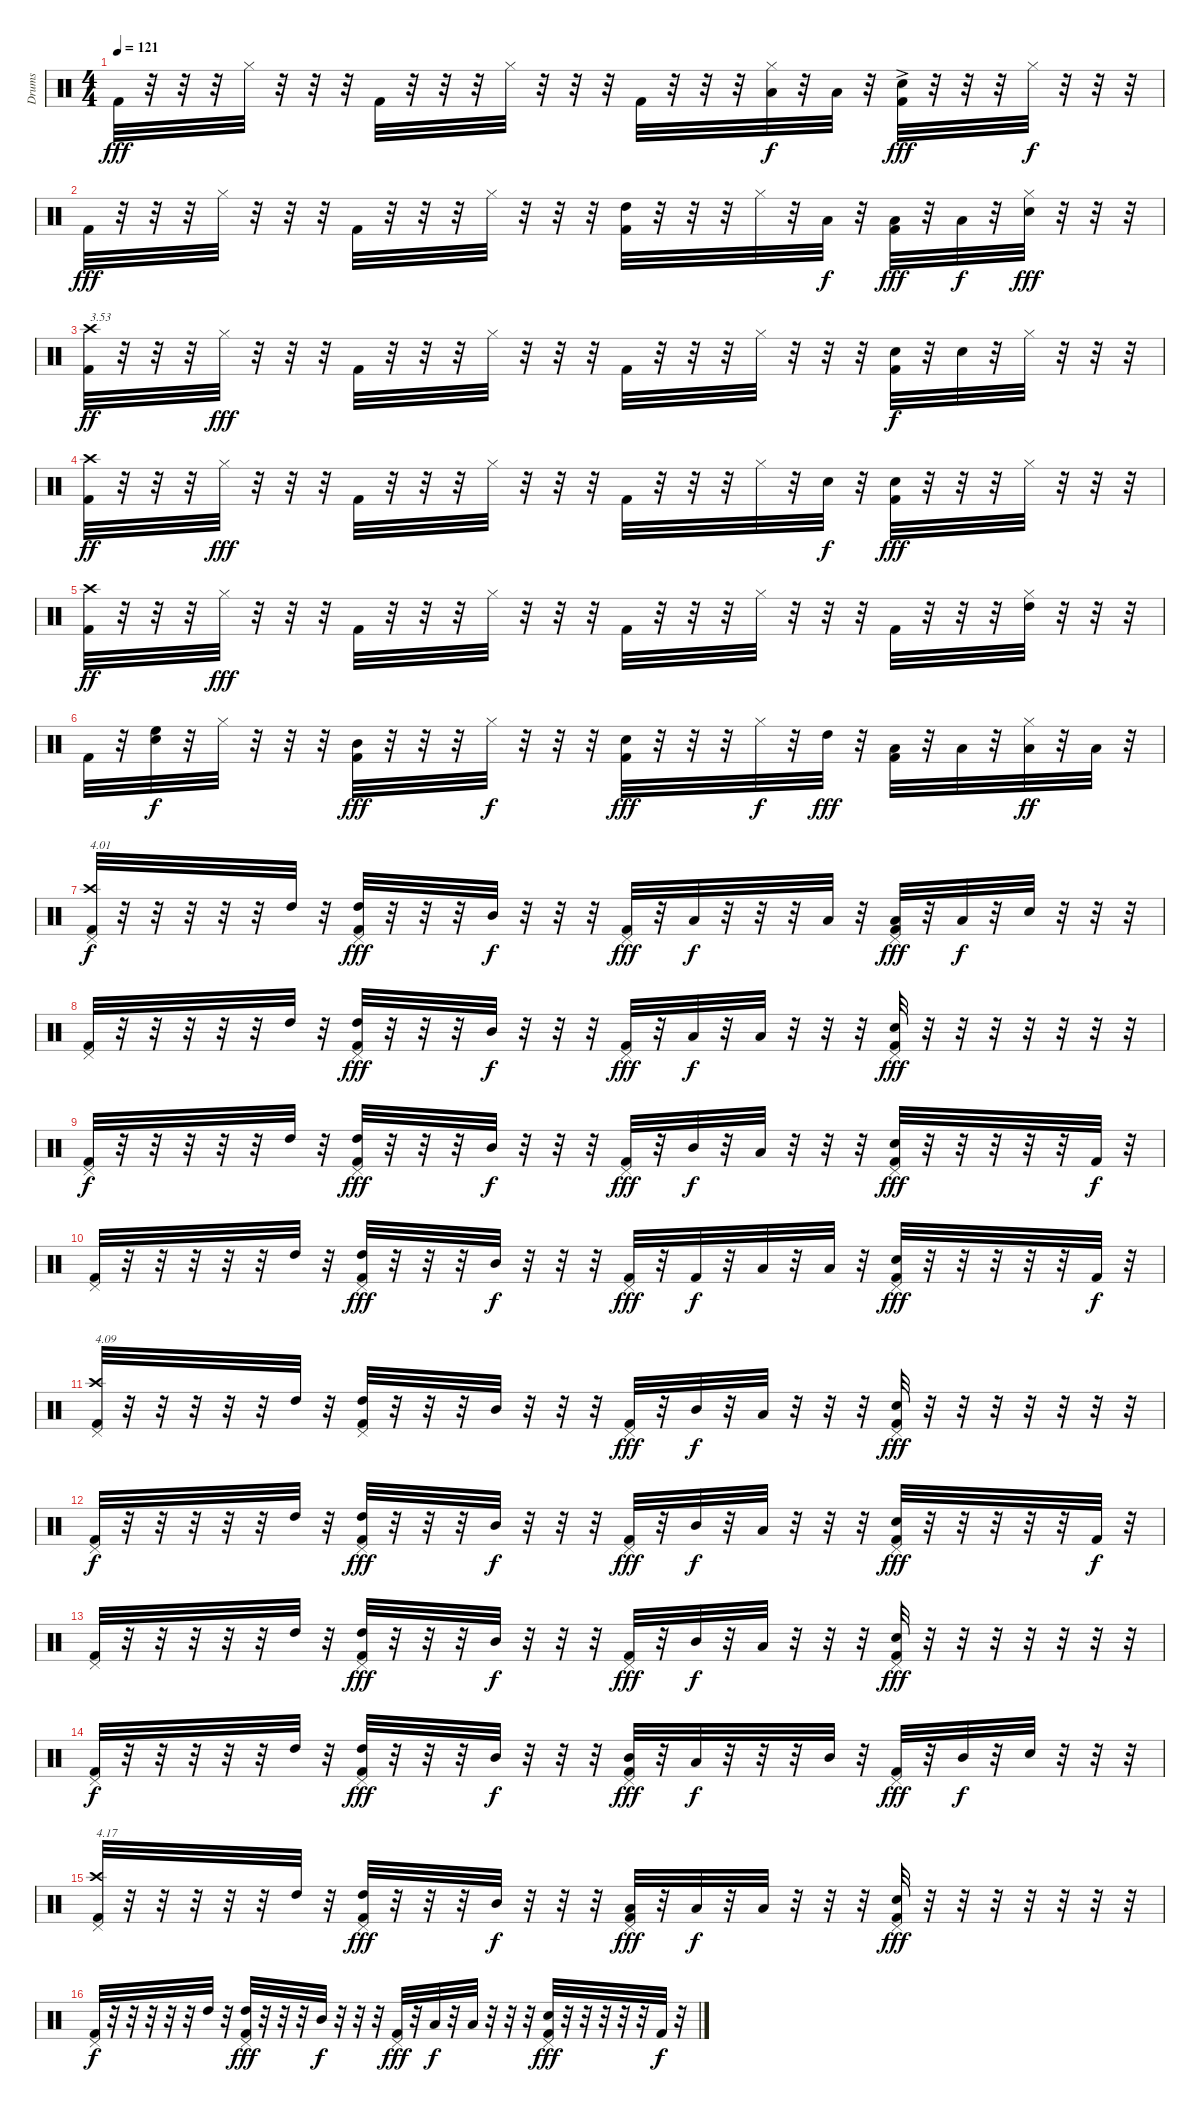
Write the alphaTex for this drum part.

\track ("Drums" "Drums") {instrument percussion}
\staff {score}
\articulation defaults
\ts (4 4)
\tempo 121
\clef neutral
\ks c "Kick (hit) 2".32{dy fff}
r.32 r.32 r.32 "Hi-Hat (closed)".32 r.32 r.32 r.32 "Kick (hit) 2".32 r.32 r.32 r.32 "Hi-Hat (closed)".32 r.32 r.32 r.32 "Kick (hit) 2".32 r.32 r.32 r.32 ("Hi-Hat (closed)" "Low Tom (hit)").32{dy f} r.32 "Low Tom (hit)".32 r.32 ("Kick (hit) 2" "Electric Snare (hit)"{ac}).32{dy fff} r.32 r.32 r.32 "Hi-Hat (closed)".32{dy f} r.32 r.32 r.32 |
"Kick (hit) 2".32{dy fff} r.32 r.32 r.32 "Hi-Hat (closed)".32 r.32 r.32 r.32 "Kick (hit) 2".32 r.32 r.32 r.32 "Hi-Hat (closed)".32 r.32 r.32 r.32 ("Kick (hit) 2" "High Tom (hit)").32 r.32 r.32 r.32 "Hi-Hat (closed)".32 r.32 "Low Tom (hit)".32{dy f} r.32 ("Kick (hit) 2" "Low Tom (hit)").32{dy fff} r.32 "Low Tom (hit)".32{dy f} r.32 ("Hi-Hat (closed)" "Electric Snare (hit)").32{dy fff} r.32 r.32 r.32 |
("Kick (hit) 2" "Crash high (hit)").32{txt "3.53" dy ff} r.32 r.32 r.32 "Hi-Hat (closed)".32{dy fff} r.32 r.32 r.32 "Kick (hit) 2".32 r.32 r.32 r.32 "Hi-Hat (closed)".32 r.32 r.32 r.32 "Kick (hit) 2".32 r.32 r.32 r.32 "Hi-Hat (closed)".32 r.32 r.32 r.32 ("Kick (hit) 2" "Electric Snare (hit)").32{dy f} r.32 "Electric Snare (hit)".32 r.32 "Hi-Hat (closed)".32 r.32 r.32 r.32 |
("Kick (hit) 2" "Crash high (hit)").32{dy ff} r.32 r.32 r.32 "Hi-Hat (closed)".32{dy fff} r.32 r.32 r.32 "Kick (hit) 2".32 r.32 r.32 r.32 "Hi-Hat (closed)".32 r.32 r.32 r.32 "Kick (hit) 2".32 r.32 r.32 r.32 "Hi-Hat (closed)".32 r.32 "Electric Snare (hit)".32{dy f} r.32 ("Kick (hit) 2" "Electric Snare (hit)").32{dy fff} r.32 r.32 r.32 "Hi-Hat (closed)".32 r.32 r.32 r.32 |
("Kick (hit) 2" "Crash high (hit)").32{dy ff} r.32 r.32 r.32 "Hi-Hat (closed)".32{dy fff} r.32 r.32 r.32 "Kick (hit) 2".32 r.32 r.32 r.32 "Hi-Hat (closed)".32 r.32 r.32 r.32 "Kick (hit) 2".32 r.32 r.32 r.32 "Hi-Hat (closed)".32 r.32 r.32 r.32 "Kick (hit) 2".32 r.32 r.32 r.32 ("Hi-Hat (closed)" "High Tom (hit)").32 r.32 r.32 r.32 |
"Kick (hit) 2".32 r.32 ("High Floor Tom (hit)" "Electric Snare (hit)").32{dy f} r.32 "Hi-Hat (closed)".32 r.32 r.32 r.32 ("Kick (hit) 2" "Mid Tom (hit)").32{dy fff} r.32 r.32 r.32 "Hi-Hat (closed)".32{dy f} r.32 r.32 r.32 ("Kick (hit) 2" "Electric Snare (hit)").32{dy fff} r.32 r.32 r.32 "Hi-Hat (closed)".32{dy f} r.32 "High Tom (hit)".32{dy fff} r.32 ("Kick (hit) 2" "Low Tom (hit)").32 r.32 "Low Tom (hit)".32 r.32 ("Hi-Hat (closed)" "Low Floor Tom (hit)").32{dy ff} r.32 "Low Floor Tom (hit)".32 r.32 |
("Pedal Hi-Hat (hit)" "Kick (hit) 2" "Crash high (hit)").32{txt "4.01" dy f} r.32 r.32 r.32 r.32 r.32 "High Tom (hit)".32 r.32 ("Pedal Hi-Hat (hit)" "Kick (hit) 2" "High Tom (hit)").32{dy fff} r.32 r.32 r.32 "Mid Tom (hit)".32{dy f} r.32 r.32 r.32 ("Pedal Hi-Hat (hit)" "Kick (hit) 2").32{dy fff} r.32 "Low Tom (hit)".32{dy f} r.32 r.32 r.32 "Low Tom (hit)".32 r.32 ("Pedal Hi-Hat (hit)" "Kick (hit) 2" "Low Tom (hit)").32{dy fff} r.32 "Low Tom (hit)".32{dy f} r.32 "Electric Snare (hit)".32 r.32 r.32 r.32 |
("Pedal Hi-Hat (hit)" "Kick (hit) 2").32 r.32 r.32 r.32 r.32 r.32 "High Tom (hit)".32 r.32 ("Pedal Hi-Hat (hit)" "Kick (hit) 2" "High Tom (hit)").32{dy fff} r.32 r.32 r.32 "Mid Tom (hit)".32{dy f} r.32 r.32 r.32 ("Pedal Hi-Hat (hit)" "Kick (hit) 2").32{dy fff} r.32 "Low Tom (hit)".32{dy f} r.32 "Low Tom (hit)".32 r.32 r.32 r.32 ("Pedal Hi-Hat (hit)" "Kick (hit) 2" "Electric Snare (hit)").32{dy fff} r.32 r.32 r.32 r.32 r.32 r.32 r.32 |
("Pedal Hi-Hat (hit)" "Kick (hit) 2").32{dy f} r.32 r.32 r.32 r.32 r.32 "High Tom (hit)".32 r.32 ("Pedal Hi-Hat (hit)" "Kick (hit) 2" "High Tom (hit)").32{dy fff} r.32 r.32 r.32 "Mid Tom (hit)".32{dy f} r.32 r.32 r.32 ("Pedal Hi-Hat (hit)" "Kick (hit) 2").32{dy fff} r.32 "Mid Tom (hit)".32{dy f} r.32 "Low Tom (hit)".32 r.32 r.32 r.32 ("Pedal Hi-Hat (hit)" "Kick (hit) 2" "Electric Snare (hit)").32{dy fff} r.32 r.32 r.32 r.32 r.32 "Kick (hit) 2".32{dy f} r.32 |
("Pedal Hi-Hat (hit)" "Kick (hit) 2").32 r.32 r.32 r.32 r.32 r.32 "High Tom (hit)".32 r.32 ("Pedal Hi-Hat (hit)" "Kick (hit) 2" "High Tom (hit)").32{dy fff} r.32 r.32 r.32 "Mid Tom (hit)".32{dy f} r.32 r.32 r.32 ("Pedal Hi-Hat (hit)" "Kick (hit) 2").32{dy fff} r.32 "Kick (hit) 2".32{dy f} r.32 "Low Tom (hit)".32 r.32 "Low Tom (hit)".32 r.32 ("Pedal Hi-Hat (hit)" "Kick (hit) 2" "Electric Snare (hit)").32{dy fff} r.32 r.32 r.32 r.32 r.32 "Kick (hit) 2".32{dy f} r.32 |
("Pedal Hi-Hat (hit)" "Kick (hit) 2" "Crash high (hit)").32{txt "4.09"} r.32 r.32 r.32 r.32 r.32 "High Tom (hit)".32 r.32 ("Pedal Hi-Hat (hit)" "Kick (hit) 2" "High Tom (hit)").32 r.32 r.32 r.32 "Mid Tom (hit)".32 r.32 r.32 r.32 ("Pedal Hi-Hat (hit)" "Kick (hit) 2").32{dy fff} r.32 "Mid Tom (hit)".32{dy f} r.32 "Low Tom (hit)".32 r.32 r.32 r.32 ("Pedal Hi-Hat (hit)" "Kick (hit) 2" "Electric Snare (hit)").32{dy fff} r.32 r.32 r.32 r.32 r.32 r.32 r.32 |
("Pedal Hi-Hat (hit)" "Kick (hit) 2").32{dy f} r.32 r.32 r.32 r.32 r.32 "High Tom (hit)".32 r.32 ("Pedal Hi-Hat (hit)" "Kick (hit) 2" "High Tom (hit)").32{dy fff} r.32 r.32 r.32 "Mid Tom (hit)".32{dy f} r.32 r.32 r.32 ("Pedal Hi-Hat (hit)" "Kick (hit) 2").32{dy fff} r.32 "Mid Tom (hit)".32{dy f} r.32 "Low Tom (hit)".32 r.32 r.32 r.32 ("Pedal Hi-Hat (hit)" "Kick (hit) 2" "Electric Snare (hit)").32{dy fff} r.32 r.32 r.32 r.32 r.32 "Kick (hit) 2".32{dy f} r.32 |
("Pedal Hi-Hat (hit)" "Kick (hit) 2").32 r.32 r.32 r.32 r.32 r.32 "High Tom (hit)".32 r.32 ("Pedal Hi-Hat (hit)" "Kick (hit) 2" "High Tom (hit)").32{dy fff} r.32 r.32 r.32 "Mid Tom (hit)".32{dy f} r.32 r.32 r.32 ("Pedal Hi-Hat (hit)" "Kick (hit) 2").32{dy fff} r.32 "Mid Tom (hit)".32{dy f} r.32 "Low Tom (hit)".32 r.32 r.32 r.32 ("Pedal Hi-Hat (hit)" "Kick (hit) 2" "Electric Snare (hit)").32{dy fff} r.32 r.32 r.32 r.32 r.32 r.32 r.32 |
("Pedal Hi-Hat (hit)" "Kick (hit) 2").32{dy f} r.32 r.32 r.32 r.32 r.32 "High Tom (hit)".32 r.32 ("Pedal Hi-Hat (hit)" "Kick (hit) 2" "High Tom (hit)").32{dy fff} r.32 r.32 r.32 "Mid Tom (hit)".32{dy f} r.32 r.32 r.32 ("Pedal Hi-Hat (hit)" "Kick (hit) 2" "Mid Tom (hit)").32{dy fff} r.32 "Low Tom (hit)".32{dy f} r.32 r.32 r.32 "Mid Tom (hit)".32 r.32 ("Pedal Hi-Hat (hit)" "Kick (hit) 2").32{dy fff} r.32 "Mid Tom (hit)".32{dy f} r.32 "Electric Snare (hit)".32 r.32 r.32 r.32 |
("Pedal Hi-Hat (hit)" "Kick (hit) 2" "Crash high (hit)").32{txt "4.17"} r.32 r.32 r.32 r.32 r.32 "High Tom (hit)".32 r.32 ("Pedal Hi-Hat (hit)" "Kick (hit) 2" "High Tom (hit)").32{dy fff} r.32 r.32 r.32 "Mid Tom (hit)".32{dy f} r.32 r.32 r.32 ("Pedal Hi-Hat (hit)" "Kick (hit) 2" "Low Tom (hit)").32{dy fff} r.32 "Low Tom (hit)".32{dy f} r.32 "Low Tom (hit)".32 r.32 r.32 r.32 ("Pedal Hi-Hat (hit)" "Kick (hit) 2" "Electric Snare (hit)").32{dy fff} r.32 r.32 r.32 r.32 r.32 r.32 r.32 |
("Pedal Hi-Hat (hit)" "Kick (hit) 2").32{dy f} r.32 r.32 r.32 r.32 r.32 "High Tom (hit)".32 r.32 ("Pedal Hi-Hat (hit)" "Kick (hit) 2" "High Tom (hit)").32{dy fff} r.32 r.32 r.32 "Mid Tom (hit)".32{dy f} r.32 r.32 r.32 ("Pedal Hi-Hat (hit)" "Kick (hit) 2").32{dy fff} r.32 "Low Tom (hit)".32{dy f} r.32 "Low Tom (hit)".32 r.32 r.32 r.32 ("Pedal Hi-Hat (hit)" "Kick (hit) 2" "Electric Snare (hit)").32{dy fff} r.32 r.32 r.32 r.32 r.32 "Kick (hit) 2".32{dy f} r.32
